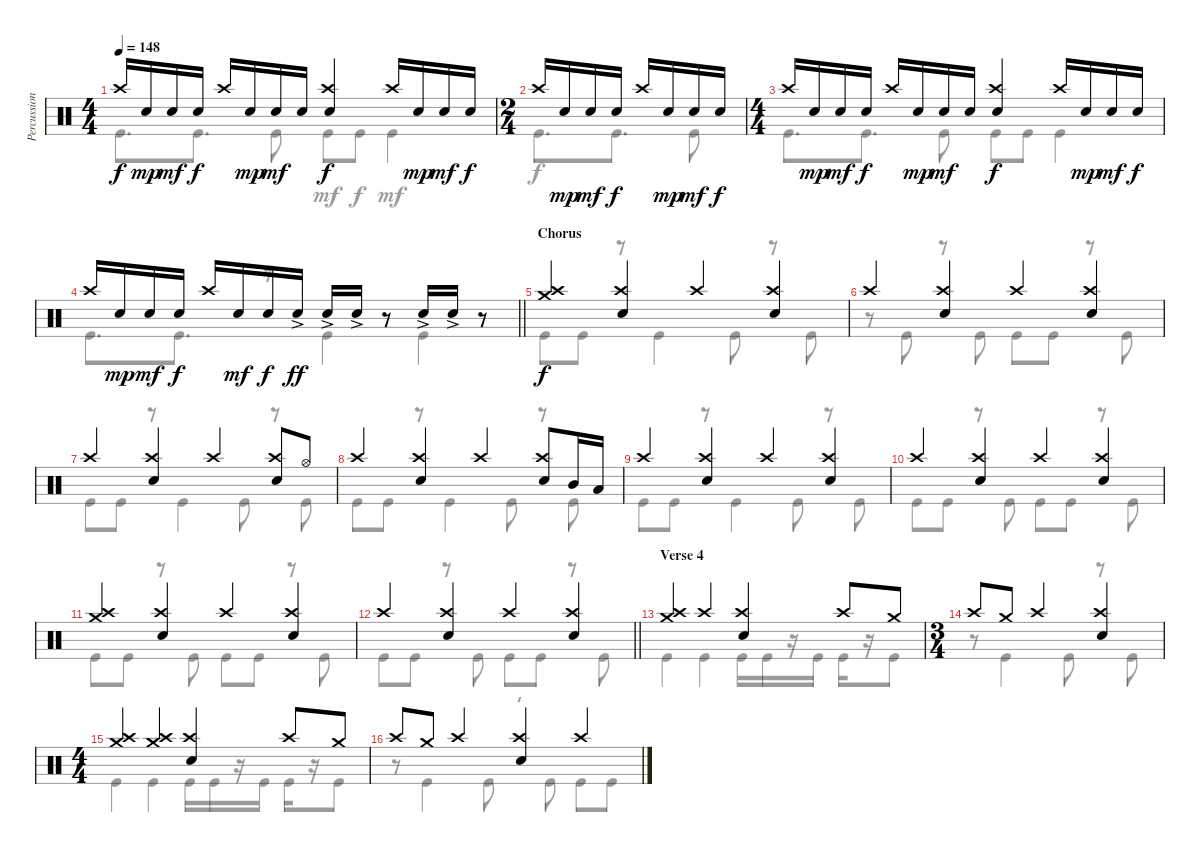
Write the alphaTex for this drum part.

\track ("Percussion" "Percussion") {instrument percussion}
\staff {score}
\articulation defaults
\voice
\ts (4 4)
\tempo 148
\clef neutral
\ks c "Crash high (hit)".16{dy f} "Electric Snare (hit)".16{dy mp} "Electric Snare (hit)".16{dy mf} "Electric Snare (hit)".16{dy f} "Crash high (hit)".16 "Electric Snare (hit)".16{dy mp} "Electric Snare (hit)".16{dy mf} "Electric Snare (hit)".16
("Crash high (hit)" "Electric Snare (hit)").4{dy f} "Crash high (hit)".16 "Electric Snare (hit)".16{dy mp} "Electric Snare (hit)".16{dy mf} "Electric Snare (hit)".16{dy f} |
\ts (2 4)
"Crash high (hit)".16 "Electric Snare (hit)".16{dy mp} "Electric Snare (hit)".16{dy mf} "Electric Snare (hit)".16{dy f} "Crash high (hit)".16 "Electric Snare (hit)".16{dy mp} "Electric Snare (hit)".16{dy mf} "Electric Snare (hit)".16{dy f} |
\ts (4 4)
"Crash high (hit)".16 "Electric Snare (hit)".16{dy mp} "Electric Snare (hit)".16{dy mf} "Electric Snare (hit)".16{dy f} "Crash high (hit)".16 "Electric Snare (hit)".16{dy mp} "Electric Snare (hit)".16{dy mf} "Electric Snare (hit)".16 ("Crash high (hit)" "Electric Snare (hit)").4{dy f} "Crash high (hit)".16 "Electric Snare (hit)".16{dy mp} "Electric Snare (hit)".16{dy mf} "Electric Snare (hit)".16{dy f} |
\barLineRight lightlight "Crash high (hit)".16 "Electric Snare (hit)".16{dy mp} "Electric Snare (hit)".16{dy mf} "Electric Snare (hit)".16{dy f} "Crash high (hit)".16 "Electric Snare (hit)".16{dy mf} "Electric Snare (hit)".16{dy f} "Electric Snare (hit)"{ac}.16{dy ff} "Electric Snare (hit)"{ac}.16 "Electric Snare (hit)"{ac}.16
r.8 "Electric Snare (hit)"{ac}.16 "Electric Snare (hit)"{ac}.16 r.8 |
\section ("" "Chorus")
("Crash medium (hit)" "Crash high (hit)").4{dy f} ("Crash high (hit)" "Electric Snare (hit)").4 "Crash high (hit)".4 ("Crash high (hit)" "Electric Snare (hit)").4 |
"Crash high (hit)".4 ("Crash high (hit)" "Electric Snare (hit)").4 "Crash high (hit)".4 ("Crash high (hit)" "Electric Snare (hit)").4 |
"Crash high (hit)".4 ("Crash high (hit)" "Electric Snare (hit)").4 "Crash high (hit)".4 ("Crash high (hit)" "Electric Snare (hit)").8 "Hi-Hat (open)".8 |
"Crash high (hit)".4 ("Crash high (hit)" "Electric Snare (hit)").4 "Crash high (hit)".4 ("Crash high (hit)" "Electric Snare (hit)").8 "Mid Tom (hit)".16 "Low Tom (hit)".16 |
"Crash high (hit)".4 ("Crash high (hit)" "Electric Snare (hit)").4 "Crash high (hit)".4 ("Crash high (hit)" "Electric Snare (hit)").4 |
"Crash high (hit)".4 ("Crash high (hit)" "Electric Snare (hit)").4 "Crash high (hit)".4 ("Crash high (hit)" "Electric Snare (hit)").4 |
("Crash medium (hit)" "Crash high (hit)").4 ("Crash high (hit)" "Electric Snare (hit)").4 "Crash high (hit)".4 ("Crash high (hit)" "Electric Snare (hit)").4 |
\barLineRight lightlight "Crash high (hit)".4
("Crash high (hit)" "Electric Snare (hit)").4 "Crash high (hit)".4 ("Crash high (hit)" "Electric Snare (hit)").4 |
\section ("" "Verse 4")
("Crash medium (hit)" "Crash high (hit)").4 "Crash high (hit)".4 ("Crash high (hit)" "Electric Snare (hit)").4 "Crash high (hit)".8 "Crash medium (hit)".8 |
\ts (3 4)
"Crash high (hit)".8 "Crash medium (hit)".8 "Crash high (hit)".4 ("Crash high (hit)" "Electric Snare (hit)").4 |
\ts (4 4)
("Crash medium (hit)" "Crash high (hit)").4 ("Crash medium (hit)" "Crash high (hit)").4 ("Crash high (hit)" "Electric Snare (hit)").4 "Crash high (hit)".8 "Crash medium (hit)".8 |
"Crash high (hit)".8 "Crash medium (hit)".8 "Crash high (hit)".4 ("Crash high (hit)" "Electric Snare (hit)").4 "Crash high (hit)".4
\voice
\clef neutral
\ottava regular
\simile none
\ks c "Kick (hit)".8{d dy f} "Kick (hit)".8{d} "Kick (hit)".8 "Kick (hit)".8{dy mf} "Kick (hit)".8{dy f} "Kick (hit)".4{dy mf}
|
"Kick (hit)".8{d dy f} "Kick (hit)".8{d} "Kick (hit)".8 |
"Kick (hit)".8{d} "Kick (hit)".8{d} "Kick (hit)".8 "Kick (hit)".8 "Kick (hit)".8 "Kick (hit)".4 |
\barLineRight lightlight "Kick (hit)".8{d} "Kick (hit)".8{d}
r.8 "Kick (hit)".4 "Kick (hit)".4 |
"Kick (hit)".8 "Kick (hit)".8 r.8 "Kick (hit)".4 "Kick (hit)".8 r.8 "Kick (hit)".8 |
r.8 "Kick (hit)".8 r.8 "Kick (hit)".8 "Kick (hit)".8 "Kick (hit)".8 r.8 "Kick (hit)".8 |
"Kick (hit)".8 "Kick (hit)".8 r.8 "Kick (hit)".4 "Kick (hit)".8 r.8 "Kick (hit)".8 |
"Kick (hit)".8 "Kick (hit)".8 r.8 "Kick (hit)".4 "Kick (hit)".8 r.8 "Kick (hit)".8 |
"Kick (hit)".8 "Kick (hit)".8 r.8 "Kick (hit)".4 "Kick (hit)".8 r.8 "Kick (hit)".8 |
"Kick (hit)".8 "Kick (hit)".8 r.8 "Kick (hit)".8 "Kick (hit)".8 "Kick (hit)".8 r.8 "Kick (hit)".8 |
"Kick (hit)".8 "Kick (hit)".8 r.8 "Kick (hit)".8 "Kick (hit)".8 "Kick (hit)".8 r.8 "Kick (hit)".8 |
\barLineRight lightlight "Kick (hit)".8 "Kick (hit)".8
r.8 "Kick (hit)".8 "Kick (hit)".8 "Kick (hit)".8 r.8 "Kick (hit)".8 |
"Kick (hit)".4 "Kick (hit)".4 "Kick (hit)".16 "Kick (hit)".16 r.16 "Kick (hit)".16 "Kick (hit)".16 r.16 "Kick (hit)".8 |
r.8 "Kick (hit)".4 "Kick (hit)".8 r.8 "Kick (hit)".8 |
"Kick (hit)".4 "Kick (hit)".4 "Kick (hit)".16 "Kick (hit)".16 r.16 "Kick (hit)".16 "Kick (hit)".16 r.16 "Kick (hit)".8 |
r.8 "Kick (hit)".4 "Kick (hit)".8 r.8 "Kick (hit)".8 "Kick (hit)".8 "Kick (hit)".8
